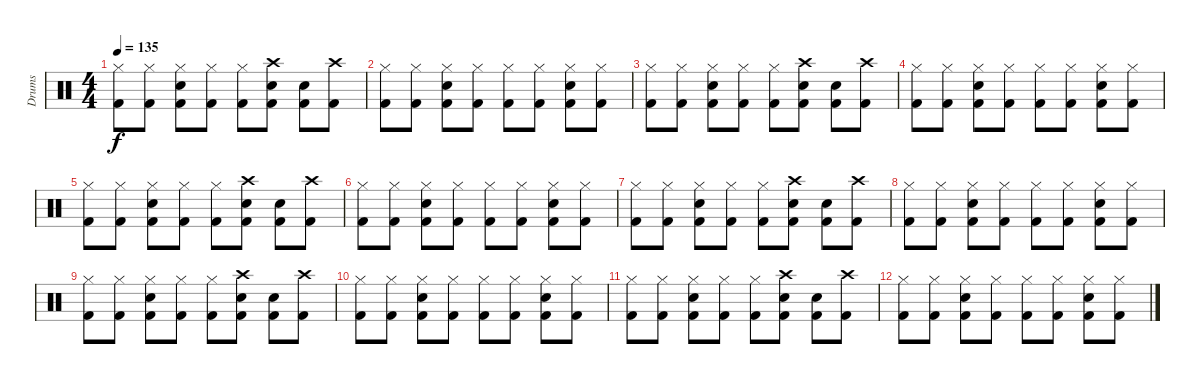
\track ("Drums" "Drums") {instrument percussion}
\staff {score}
\articulation defaults
\ts (4 4)
\tempo 135
\clef neutral
\ks c
("Kick (hit) 2" "Hi-Hat (closed)").8{dy f} ("Kick (hit) 2" "Hi-Hat (closed)").8 ("Snare (hit) 2" "Kick (hit) 2" "Hi-Hat (closed)").8 ("Kick (hit) 2" "Hi-Hat (closed)").8 ("Kick (hit) 2" "Hi-Hat (closed)").8 ("Kick (hit) 2" "Crash high (hit)" "Snare (hit) 2").8 ("Snare (hit) 2" "Kick (hit) 2").8 ("Kick (hit) 2" "Crash high (hit)").8 |
("Kick (hit) 2" "Hi-Hat (closed)").8 ("Kick (hit) 2" "Hi-Hat (closed)").8 ("Snare (hit) 2" "Kick (hit) 2" "Hi-Hat (closed)").8 ("Kick (hit) 2" "Hi-Hat (closed)").8 ("Kick (hit) 2" "Hi-Hat (closed)").8 ("Kick (hit) 2" "Hi-Hat (closed)").8 ("Snare (hit) 2" "Kick (hit) 2" "Hi-Hat (closed)").8 ("Kick (hit) 2" "Hi-Hat (closed)").8 |
("Kick (hit) 2" "Hi-Hat (closed)").8 ("Kick (hit) 2" "Hi-Hat (closed)").8 ("Snare (hit) 2" "Kick (hit) 2" "Hi-Hat (closed)").8 ("Kick (hit) 2" "Hi-Hat (closed)").8 ("Kick (hit) 2" "Hi-Hat (closed)").8 ("Kick (hit) 2" "Crash high (hit)" "Snare (hit) 2").8 ("Snare (hit) 2" "Kick (hit) 2").8 ("Kick (hit) 2" "Crash high (hit)").8 |
("Kick (hit) 2" "Hi-Hat (closed)").8 ("Kick (hit) 2" "Hi-Hat (closed)").8 ("Snare (hit) 2" "Kick (hit) 2" "Hi-Hat (closed)").8 ("Kick (hit) 2" "Hi-Hat (closed)").8 ("Kick (hit) 2" "Hi-Hat (closed)").8 ("Kick (hit) 2" "Hi-Hat (closed)").8 ("Snare (hit) 2" "Kick (hit) 2" "Hi-Hat (closed)").8 ("Kick (hit) 2" "Hi-Hat (closed)").8 |
("Kick (hit) 2" "Hi-Hat (closed)").8 ("Kick (hit) 2" "Hi-Hat (closed)").8 ("Snare (hit) 2" "Kick (hit) 2" "Hi-Hat (closed)").8 ("Kick (hit) 2" "Hi-Hat (closed)").8 ("Kick (hit) 2" "Hi-Hat (closed)").8 ("Kick (hit) 2" "Crash high (hit)" "Snare (hit) 2").8 ("Snare (hit) 2" "Kick (hit) 2").8 ("Kick (hit) 2" "Crash high (hit)").8 |
("Kick (hit) 2" "Hi-Hat (closed)").8 ("Kick (hit) 2" "Hi-Hat (closed)").8 ("Snare (hit) 2" "Kick (hit) 2" "Hi-Hat (closed)").8 ("Kick (hit) 2" "Hi-Hat (closed)").8 ("Kick (hit) 2" "Hi-Hat (closed)").8 ("Kick (hit) 2" "Hi-Hat (closed)").8 ("Snare (hit) 2" "Kick (hit) 2" "Hi-Hat (closed)").8 ("Kick (hit) 2" "Hi-Hat (closed)").8 |
("Kick (hit) 2" "Hi-Hat (closed)").8 ("Kick (hit) 2" "Hi-Hat (closed)").8 ("Snare (hit) 2" "Kick (hit) 2" "Hi-Hat (closed)").8 ("Kick (hit) 2" "Hi-Hat (closed)").8 ("Kick (hit) 2" "Hi-Hat (closed)").8 ("Kick (hit) 2" "Crash high (hit)" "Snare (hit) 2").8 ("Snare (hit) 2" "Kick (hit) 2").8 ("Kick (hit) 2" "Crash high (hit)").8 |
("Kick (hit) 2" "Hi-Hat (closed)").8 ("Kick (hit) 2" "Hi-Hat (closed)").8 ("Snare (hit) 2" "Kick (hit) 2" "Hi-Hat (closed)").8 ("Kick (hit) 2" "Hi-Hat (closed)").8 ("Kick (hit) 2" "Hi-Hat (closed)").8 ("Kick (hit) 2" "Hi-Hat (closed)").8 ("Snare (hit) 2" "Kick (hit) 2" "Hi-Hat (closed)").8 ("Kick (hit) 2" "Hi-Hat (closed)").8 |
("Kick (hit) 2" "Hi-Hat (closed)").8 ("Kick (hit) 2" "Hi-Hat (closed)").8 ("Snare (hit) 2" "Kick (hit) 2" "Hi-Hat (closed)").8 ("Kick (hit) 2" "Hi-Hat (closed)").8 ("Kick (hit) 2" "Hi-Hat (closed)").8 ("Kick (hit) 2" "Crash high (hit)" "Snare (hit) 2").8 ("Snare (hit) 2" "Kick (hit) 2").8 ("Kick (hit) 2" "Crash high (hit)").8 |
("Kick (hit) 2" "Hi-Hat (closed)").8 ("Kick (hit) 2" "Hi-Hat (closed)").8 ("Snare (hit) 2" "Kick (hit) 2" "Hi-Hat (closed)").8 ("Kick (hit) 2" "Hi-Hat (closed)").8 ("Kick (hit) 2" "Hi-Hat (closed)").8 ("Kick (hit) 2" "Hi-Hat (closed)").8 ("Snare (hit) 2" "Kick (hit) 2" "Hi-Hat (closed)").8 ("Kick (hit) 2" "Hi-Hat (closed)").8 |
("Kick (hit) 2" "Hi-Hat (closed)").8 ("Kick (hit) 2" "Hi-Hat (closed)").8 ("Snare (hit) 2" "Kick (hit) 2" "Hi-Hat (closed)").8 ("Kick (hit) 2" "Hi-Hat (closed)").8 ("Kick (hit) 2" "Hi-Hat (closed)").8 ("Kick (hit) 2" "Crash high (hit)" "Snare (hit) 2").8 ("Snare (hit) 2" "Kick (hit) 2").8 ("Kick (hit) 2" "Crash high (hit)").8 |
("Kick (hit) 2" "Hi-Hat (closed)").8 ("Kick (hit) 2" "Hi-Hat (closed)").8 ("Snare (hit) 2" "Kick (hit) 2" "Hi-Hat (closed)").8 ("Kick (hit) 2" "Hi-Hat (closed)").8 ("Kick (hit) 2" "Hi-Hat (closed)").8 ("Kick (hit) 2" "Hi-Hat (closed)").8 ("Snare (hit) 2" "Kick (hit) 2" "Hi-Hat (closed)").8 ("Kick (hit) 2" "Hi-Hat (closed)").8
